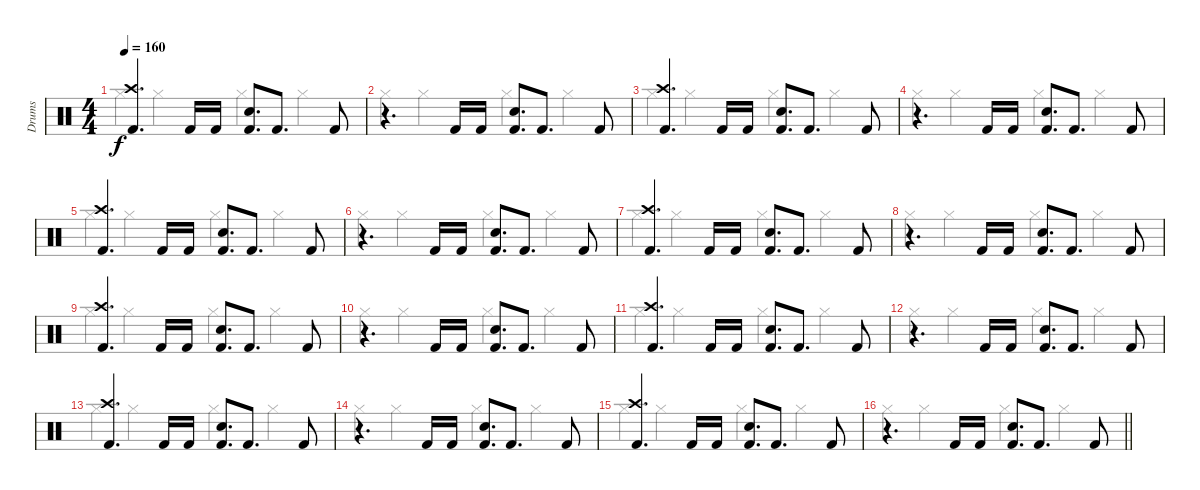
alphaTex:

\track ("Drums" "Drums") {instrument percussion}
\staff {score}
\articulation defaults
\voice
\ts (4 4)
\tempo 160
\clef neutral
\ks c
("Crash high (hit)" "Kick (hit) 2").4{d dy f} "Kick (hit) 2".16 "Kick (hit) 2".16 ("Snare (hit) 2" "Kick (hit) 2").8{d} "Kick (hit) 2".8{d} "Kick (hit) 2".8 |
r.4{d} "Kick (hit) 2".16 "Kick (hit) 2".16 ("Snare (hit) 2" "Kick (hit) 2").8{d} "Kick (hit) 2".8{d} "Kick (hit) 2".8 |
("Crash high (hit)" "Kick (hit) 2").4{d} "Kick (hit) 2".16 "Kick (hit) 2".16 ("Snare (hit) 2" "Kick (hit) 2").8{d} "Kick (hit) 2".8{d} "Kick (hit) 2".8 |
r.4{d} "Kick (hit) 2".16 "Kick (hit) 2".16 ("Snare (hit) 2" "Kick (hit) 2").8{d} "Kick (hit) 2".8{d} "Kick (hit) 2".8 |
("Crash high (hit)" "Kick (hit) 2").4{d} "Kick (hit) 2".16 "Kick (hit) 2".16 ("Snare (hit) 2" "Kick (hit) 2").8{d} "Kick (hit) 2".8{d} "Kick (hit) 2".8 |
r.4{d} "Kick (hit) 2".16 "Kick (hit) 2".16 ("Snare (hit) 2" "Kick (hit) 2").8{d} "Kick (hit) 2".8{d} "Kick (hit) 2".8 |
("Crash high (hit)" "Kick (hit) 2").4{d} "Kick (hit) 2".16 "Kick (hit) 2".16 ("Snare (hit) 2" "Kick (hit) 2").8{d} "Kick (hit) 2".8{d} "Kick (hit) 2".8 |
r.4{d} "Kick (hit) 2".16 "Kick (hit) 2".16 ("Snare (hit) 2" "Kick (hit) 2").8{d} "Kick (hit) 2".8{d} "Kick (hit) 2".8 |
("Crash high (hit)" "Kick (hit) 2").4{d} "Kick (hit) 2".16 "Kick (hit) 2".16 ("Snare (hit) 2" "Kick (hit) 2").8{d} "Kick (hit) 2".8{d} "Kick (hit) 2".8 |
r.4{d} "Kick (hit) 2".16 "Kick (hit) 2".16 ("Snare (hit) 2" "Kick (hit) 2").8{d} "Kick (hit) 2".8{d} "Kick (hit) 2".8 |
("Crash high (hit)" "Kick (hit) 2").4{d} "Kick (hit) 2".16 "Kick (hit) 2".16 ("Snare (hit) 2" "Kick (hit) 2").8{d} "Kick (hit) 2".8{d} "Kick (hit) 2".8 |
r.4{d} "Kick (hit) 2".16 "Kick (hit) 2".16 ("Snare (hit) 2" "Kick (hit) 2").8{d} "Kick (hit) 2".8{d} "Kick (hit) 2".8 |
("Crash high (hit)" "Kick (hit) 2").4{d} "Kick (hit) 2".16 "Kick (hit) 2".16 ("Snare (hit) 2" "Kick (hit) 2").8{d} "Kick (hit) 2".8{d} "Kick (hit) 2".8 |
r.4{d} "Kick (hit) 2".16 "Kick (hit) 2".16 ("Snare (hit) 2" "Kick (hit) 2").8{d} "Kick (hit) 2".8{d} "Kick (hit) 2".8 |
("Crash high (hit)" "Kick (hit) 2").4{d} "Kick (hit) 2".16 "Kick (hit) 2".16 ("Snare (hit) 2" "Kick (hit) 2").8{d} "Kick (hit) 2".8{d} "Kick (hit) 2".8 |
\barLineRight lightlight
r.4{d} "Kick (hit) 2".16 "Kick (hit) 2".16 ("Snare (hit) 2" "Kick (hit) 2").8{d} "Kick (hit) 2".8{d} "Kick (hit) 2".8
\voice
\clef neutral
\ottava regular
\simile none
\ks c "Hi-Hat (closed)".4{dy f} "Hi-Hat (closed)".4 "Hi-Hat (closed)".4 "Hi-Hat (closed)".4
|
"Hi-Hat (closed)".4 "Hi-Hat (closed)".4 "Hi-Hat (closed)".4 "Hi-Hat (closed)".4 |
"Hi-Hat (closed)".4 "Hi-Hat (closed)".4 "Hi-Hat (closed)".4 "Hi-Hat (closed)".4 |
"Hi-Hat (closed)".4 "Hi-Hat (closed)".4 "Hi-Hat (closed)".4 "Hi-Hat (closed)".4 |
"Hi-Hat (closed)".4 "Hi-Hat (closed)".4 "Hi-Hat (closed)".4 "Hi-Hat (closed)".4 |
"Hi-Hat (closed)".4 "Hi-Hat (closed)".4 "Hi-Hat (closed)".4 "Hi-Hat (closed)".4 |
"Hi-Hat (closed)".4 "Hi-Hat (closed)".4 "Hi-Hat (closed)".4 "Hi-Hat (closed)".4 |
"Hi-Hat (closed)".4 "Hi-Hat (closed)".4 "Hi-Hat (closed)".4 "Hi-Hat (closed)".4 |
"Hi-Hat (closed)".4 "Hi-Hat (closed)".4 "Hi-Hat (closed)".4 "Hi-Hat (closed)".4 |
"Hi-Hat (closed)".4 "Hi-Hat (closed)".4 "Hi-Hat (closed)".4 "Hi-Hat (closed)".4 |
"Hi-Hat (closed)".4 "Hi-Hat (closed)".4 "Hi-Hat (closed)".4 "Hi-Hat (closed)".4 |
"Hi-Hat (closed)".4 "Hi-Hat (closed)".4 "Hi-Hat (closed)".4 "Hi-Hat (closed)".4 |
"Hi-Hat (closed)".4 "Hi-Hat (closed)".4 "Hi-Hat (closed)".4 "Hi-Hat (closed)".4 |
"Hi-Hat (closed)".4 "Hi-Hat (closed)".4 "Hi-Hat (closed)".4 "Hi-Hat (closed)".4 |
"Hi-Hat (closed)".4 "Hi-Hat (closed)".4 "Hi-Hat (closed)".4 "Hi-Hat (closed)".4 |
\barLineRight lightlight "Hi-Hat (closed)".4 "Hi-Hat (closed)".4 "Hi-Hat (closed)".4 "Hi-Hat (closed)".4
